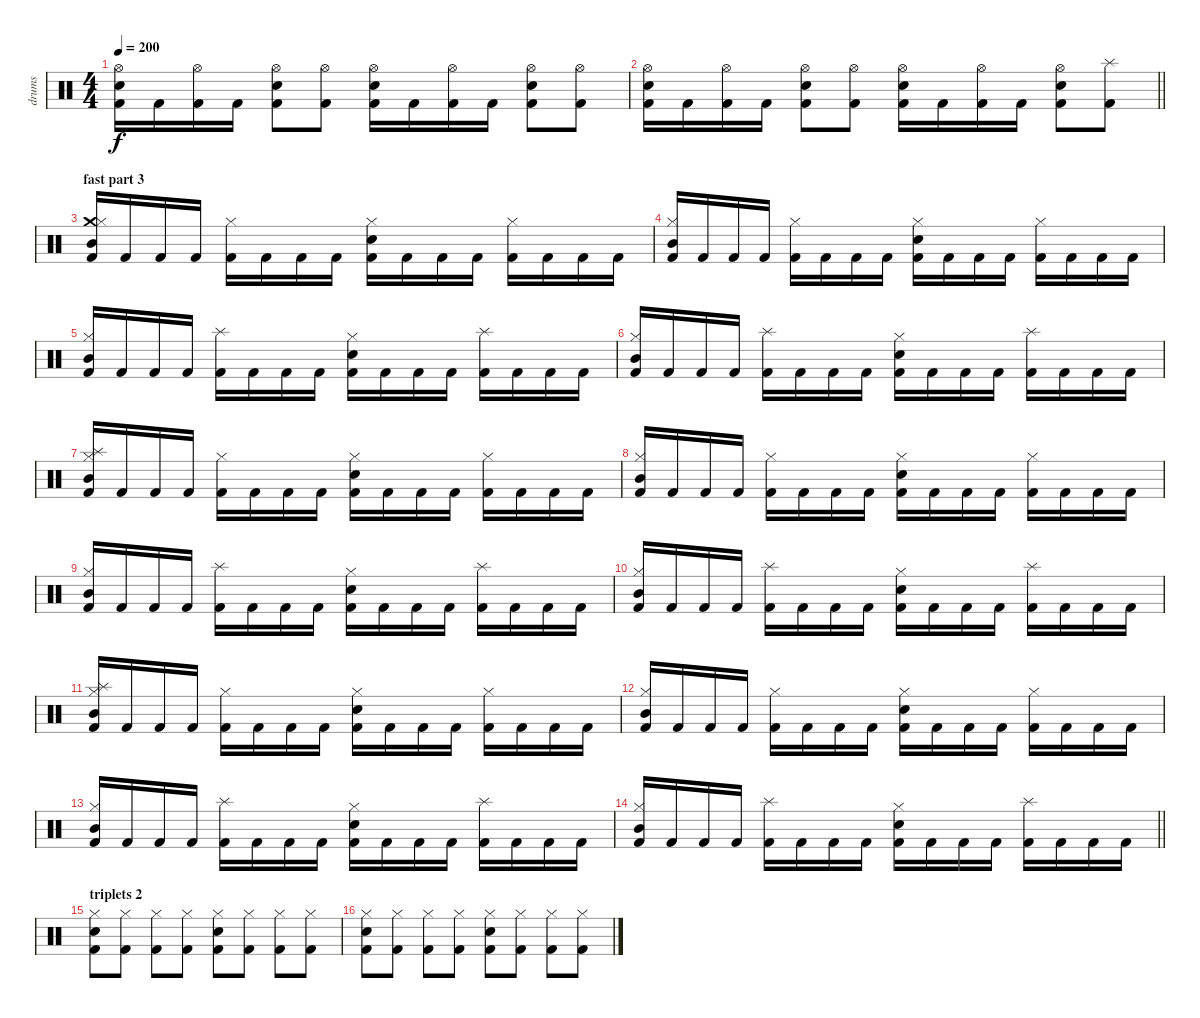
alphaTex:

\track ("drums" "drums") {instrument percussion}
\staff {score}
\articulation defaults
\ts (4 4)
\tempo 200
\clef neutral
\ks c
("Hi-Hat (open)" "Snare (hit) 2" "Kick (hit) 2").16{dy f} "Kick (hit) 2".16 ("Hi-Hat (open)" "Kick (hit) 2").16 "Kick (hit) 2".16 ("Hi-Hat (open)" "Snare (hit) 2" "Kick (hit) 2").8 ("Hi-Hat (open)" "Kick (hit) 2").8 ("Hi-Hat (open)" "Snare (hit) 2" "Kick (hit) 2").16 "Kick (hit) 2".16 ("Hi-Hat (open)" "Kick (hit) 2").16 "Kick (hit) 2".16 ("Hi-Hat (open)" "Snare (hit) 2" "Kick (hit) 2").8 ("Hi-Hat (open)" "Kick (hit) 2").8 |
\barLineRight lightlight
("Hi-Hat (open)" "Snare (hit) 2" "Kick (hit) 2").16 "Kick (hit) 2".16 ("Hi-Hat (open)" "Kick (hit) 2").16 "Kick (hit) 2".16 ("Hi-Hat (open)" "Snare (hit) 2" "Kick (hit) 2").8 ("Hi-Hat (open)" "Kick (hit) 2").8 ("Hi-Hat (open)" "Snare (hit) 2" "Kick (hit) 2").16 "Kick (hit) 2".16 ("Hi-Hat (open)" "Kick (hit) 2").16 "Kick (hit) 2".16 ("Hi-Hat (open)" "Snare (hit) 2" "Kick (hit) 2").8 ("Splash (hit)" "Kick (hit) 2").8 |
\section ("" "fast part 3")
("Crash medium (hit)" "Hi-Hat (closed)" "Mid Tom (hit)" "Kick (hit) 2").16 "Kick (hit) 2".16 "Kick (hit) 2".16 "Kick (hit) 2".16 ("Hi-Hat (closed)" "Kick (hit) 2").16 "Kick (hit) 2".16 "Kick (hit) 2".16 "Kick (hit) 2".16 ("Hi-Hat (closed)" "Snare (hit) 2" "Kick (hit) 2").16 "Kick (hit) 2".16 "Kick (hit) 2".16 "Kick (hit) 2".16 ("Hi-Hat (closed)" "Kick (hit) 2").16 "Kick (hit) 2".16 "Kick (hit) 2".16 "Kick (hit) 2".16 |
("Hi-Hat (closed)" "Mid Tom (hit)" "Kick (hit) 2").16 "Kick (hit) 2".16 "Kick (hit) 2".16 "Kick (hit) 2".16 ("Hi-Hat (closed)" "Kick (hit) 2").16 "Kick (hit) 2".16 "Kick (hit) 2".16 "Kick (hit) 2".16 ("Hi-Hat (closed)" "Snare (hit) 2" "Kick (hit) 2").16 "Kick (hit) 2".16 "Kick (hit) 2".16 "Kick (hit) 2".16 ("Hi-Hat (closed)" "Kick (hit) 2").16 "Kick (hit) 2".16 "Kick (hit) 2".16 "Kick (hit) 2".16 |
("Hi-Hat (closed)" "Mid Tom (hit)" "Kick (hit) 2").16 "Kick (hit) 2".16 "Kick (hit) 2".16 "Kick (hit) 2".16 ("Splash (hit)" "Kick (hit) 2").16 "Kick (hit) 2".16 "Kick (hit) 2".16 "Kick (hit) 2".16 ("Hi-Hat (closed)" "Snare (hit) 2" "Kick (hit) 2").16 "Kick (hit) 2".16 "Kick (hit) 2".16 "Kick (hit) 2".16 ("Splash (hit)" "Kick (hit) 2").16 "Kick (hit) 2".16 "Kick (hit) 2".16 "Kick (hit) 2".16 |
("Hi-Hat (closed)" "Mid Tom (hit)" "Kick (hit) 2").16 "Kick (hit) 2".16 "Kick (hit) 2".16 "Kick (hit) 2".16 ("Splash (hit)" "Kick (hit) 2").16 "Kick (hit) 2".16 "Kick (hit) 2".16 "Kick (hit) 2".16 ("Hi-Hat (closed)" "Snare (hit) 2" "Kick (hit) 2").16 "Kick (hit) 2".16 "Kick (hit) 2".16 "Kick (hit) 2".16 ("Splash (hit)" "Kick (hit) 2").16 "Kick (hit) 2".16 "Kick (hit) 2".16 "Kick (hit) 2".16 |
("Splash (hit)" "Hi-Hat (closed)" "Mid Tom (hit)" "Kick (hit) 2").16 "Kick (hit) 2".16 "Kick (hit) 2".16 "Kick (hit) 2".16 ("Hi-Hat (closed)" "Kick (hit) 2").16 "Kick (hit) 2".16 "Kick (hit) 2".16 "Kick (hit) 2".16 ("Hi-Hat (closed)" "Snare (hit) 2" "Kick (hit) 2").16 "Kick (hit) 2".16 "Kick (hit) 2".16 "Kick (hit) 2".16 ("Hi-Hat (closed)" "Kick (hit) 2").16 "Kick (hit) 2".16 "Kick (hit) 2".16 "Kick (hit) 2".16 |
("Hi-Hat (closed)" "Mid Tom (hit)" "Kick (hit) 2").16 "Kick (hit) 2".16 "Kick (hit) 2".16 "Kick (hit) 2".16 ("Hi-Hat (closed)" "Kick (hit) 2").16 "Kick (hit) 2".16 "Kick (hit) 2".16 "Kick (hit) 2".16 ("Hi-Hat (closed)" "Snare (hit) 2" "Kick (hit) 2").16 "Kick (hit) 2".16 "Kick (hit) 2".16 "Kick (hit) 2".16 ("Hi-Hat (closed)" "Kick (hit) 2").16 "Kick (hit) 2".16 "Kick (hit) 2".16 "Kick (hit) 2".16 |
("Hi-Hat (closed)" "Mid Tom (hit)" "Kick (hit) 2").16 "Kick (hit) 2".16 "Kick (hit) 2".16 "Kick (hit) 2".16 ("Splash (hit)" "Kick (hit) 2").16 "Kick (hit) 2".16 "Kick (hit) 2".16 "Kick (hit) 2".16 ("Hi-Hat (closed)" "Snare (hit) 2" "Kick (hit) 2").16 "Kick (hit) 2".16 "Kick (hit) 2".16 "Kick (hit) 2".16 ("Splash (hit)" "Kick (hit) 2").16 "Kick (hit) 2".16 "Kick (hit) 2".16 "Kick (hit) 2".16 |
("Hi-Hat (closed)" "Mid Tom (hit)" "Kick (hit) 2").16 "Kick (hit) 2".16 "Kick (hit) 2".16 "Kick (hit) 2".16 ("Splash (hit)" "Kick (hit) 2").16 "Kick (hit) 2".16 "Kick (hit) 2".16 "Kick (hit) 2".16 ("Hi-Hat (closed)" "Snare (hit) 2" "Kick (hit) 2").16 "Kick (hit) 2".16 "Kick (hit) 2".16 "Kick (hit) 2".16 ("Splash (hit)" "Kick (hit) 2").16 "Kick (hit) 2".16 "Kick (hit) 2".16 "Kick (hit) 2".16 |
("Splash (hit)" "Hi-Hat (closed)" "Mid Tom (hit)" "Kick (hit) 2").16 "Kick (hit) 2".16 "Kick (hit) 2".16 "Kick (hit) 2".16 ("Hi-Hat (closed)" "Kick (hit) 2").16 "Kick (hit) 2".16 "Kick (hit) 2".16 "Kick (hit) 2".16 ("Hi-Hat (closed)" "Snare (hit) 2" "Kick (hit) 2").16 "Kick (hit) 2".16 "Kick (hit) 2".16 "Kick (hit) 2".16 ("Hi-Hat (closed)" "Kick (hit) 2").16 "Kick (hit) 2".16 "Kick (hit) 2".16 "Kick (hit) 2".16 |
("Hi-Hat (closed)" "Mid Tom (hit)" "Kick (hit) 2").16 "Kick (hit) 2".16 "Kick (hit) 2".16 "Kick (hit) 2".16 ("Hi-Hat (closed)" "Kick (hit) 2").16 "Kick (hit) 2".16 "Kick (hit) 2".16 "Kick (hit) 2".16 ("Hi-Hat (closed)" "Snare (hit) 2" "Kick (hit) 2").16 "Kick (hit) 2".16 "Kick (hit) 2".16 "Kick (hit) 2".16 ("Hi-Hat (closed)" "Kick (hit) 2").16 "Kick (hit) 2".16 "Kick (hit) 2".16 "Kick (hit) 2".16 |
("Hi-Hat (closed)" "Mid Tom (hit)" "Kick (hit) 2").16 "Kick (hit) 2".16 "Kick (hit) 2".16 "Kick (hit) 2".16 ("Splash (hit)" "Kick (hit) 2").16 "Kick (hit) 2".16 "Kick (hit) 2".16 "Kick (hit) 2".16 ("Hi-Hat (closed)" "Snare (hit) 2" "Kick (hit) 2").16 "Kick (hit) 2".16 "Kick (hit) 2".16 "Kick (hit) 2".16 ("Splash (hit)" "Kick (hit) 2").16 "Kick (hit) 2".16 "Kick (hit) 2".16 "Kick (hit) 2".16 |
\barLineRight lightlight
("Hi-Hat (closed)" "Mid Tom (hit)" "Kick (hit) 2").16 "Kick (hit) 2".16 "Kick (hit) 2".16 "Kick (hit) 2".16 ("Splash (hit)" "Kick (hit) 2").16 "Kick (hit) 2".16 "Kick (hit) 2".16 "Kick (hit) 2".16 ("Hi-Hat (closed)" "Snare (hit) 2" "Kick (hit) 2").16 "Kick (hit) 2".16 "Kick (hit) 2".16 "Kick (hit) 2".16 ("Splash (hit)" "Kick (hit) 2").16 "Kick (hit) 2".16 "Kick (hit) 2".16 "Kick (hit) 2".16 |
\section ("" "triplets 2")
("Hi-Hat (closed)" "Snare (hit) 2" "Kick (hit) 2").8 ("Hi-Hat (closed)" "Kick (hit) 2").8 ("Hi-Hat (closed)" "Kick (hit) 2").8 ("Hi-Hat (closed)" "Kick (hit) 2").8 ("Hi-Hat (closed)" "Snare (hit) 2" "Kick (hit) 2").8 ("Hi-Hat (closed)" "Kick (hit) 2").8 ("Hi-Hat (closed)" "Kick (hit) 2").8 ("Hi-Hat (closed)" "Kick (hit) 2").8 |
("Hi-Hat (closed)" "Snare (hit) 2" "Kick (hit) 2").8 ("Hi-Hat (closed)" "Kick (hit) 2").8 ("Hi-Hat (closed)" "Kick (hit) 2").8 ("Hi-Hat (closed)" "Kick (hit) 2").8 ("Hi-Hat (closed)" "Snare (hit) 2" "Kick (hit) 2").8 ("Hi-Hat (closed)" "Kick (hit) 2").8 ("Hi-Hat (closed)" "Kick (hit) 2").8 ("Hi-Hat (closed)" "Kick (hit) 2").8
